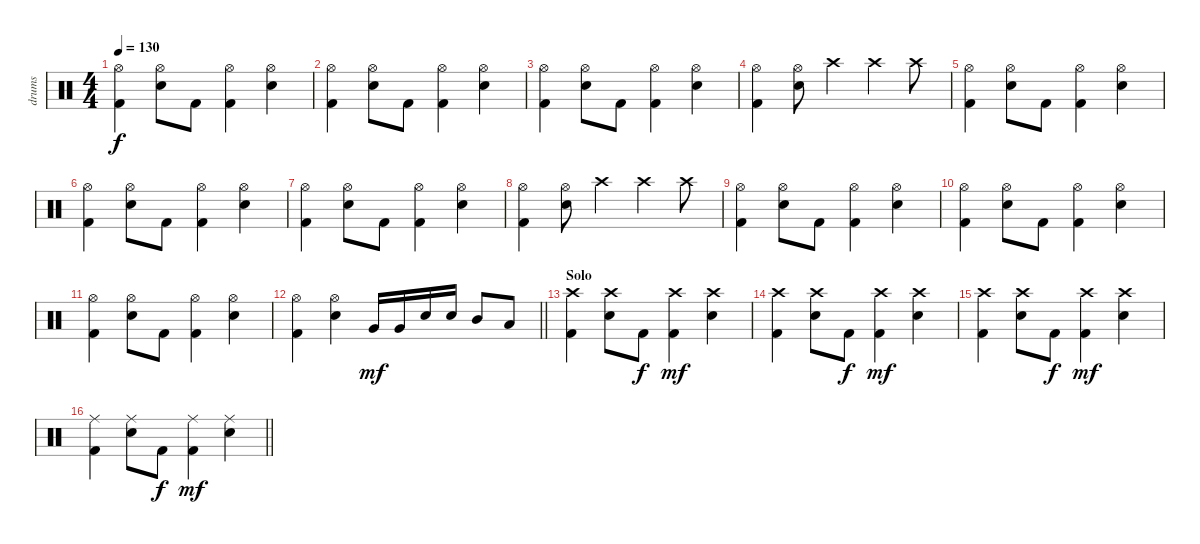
\track ("drums" "drums") {instrument percussion}
\staff {score}
\articulation defaults
\ts (4 4)
\tempo 130
\clef neutral
\ks c
("Hi-Hat (open)" "Kick (hit) 2").4{dy f} ("Hi-Hat (open)" "Snare (hit) 2").8 "Kick (hit) 2".8 ("Hi-Hat (open)" "Kick (hit) 2").4 ("Hi-Hat (open)" "Snare (hit) 2").4 |
("Hi-Hat (open)" "Kick (hit) 2").4 ("Hi-Hat (open)" "Snare (hit) 2").8 "Kick (hit) 2".8 ("Hi-Hat (open)" "Kick (hit) 2").4 ("Hi-Hat (open)" "Snare (hit) 2").4 |
("Hi-Hat (open)" "Kick (hit) 2").4 ("Hi-Hat (open)" "Snare (hit) 2").8 "Kick (hit) 2".8 ("Hi-Hat (open)" "Kick (hit) 2").4 ("Hi-Hat (open)" "Snare (hit) 2").4 |
("Hi-Hat (open)" "Kick (hit) 2").4 ("Hi-Hat (open)" "Snare (hit) 2").8 "Crash high (hit)".4 "Crash high (hit)".4 "Crash high (hit)".8 |
("Hi-Hat (open)" "Kick (hit) 2").4 ("Hi-Hat (open)" "Snare (hit) 2").8 "Kick (hit) 2".8 ("Hi-Hat (open)" "Kick (hit) 2").4 ("Hi-Hat (open)" "Snare (hit) 2").4 |
("Hi-Hat (open)" "Kick (hit) 2").4 ("Hi-Hat (open)" "Snare (hit) 2").8 "Kick (hit) 2".8 ("Hi-Hat (open)" "Kick (hit) 2").4 ("Hi-Hat (open)" "Snare (hit) 2").4 |
("Hi-Hat (open)" "Kick (hit) 2").4 ("Hi-Hat (open)" "Snare (hit) 2").8 "Kick (hit) 2".8 ("Hi-Hat (open)" "Kick (hit) 2").4 ("Hi-Hat (open)" "Snare (hit) 2").4 |
("Hi-Hat (open)" "Kick (hit) 2").4 ("Hi-Hat (open)" "Snare (hit) 2").8 "Crash high (hit)".4 "Crash high (hit)".4 "Crash high (hit)".8 |
("Hi-Hat (open)" "Kick (hit) 2").4 ("Hi-Hat (open)" "Snare (hit) 2").8 "Kick (hit) 2".8 ("Hi-Hat (open)" "Kick (hit) 2").4 ("Hi-Hat (open)" "Snare (hit) 2").4 |
("Hi-Hat (open)" "Kick (hit) 2").4 ("Hi-Hat (open)" "Snare (hit) 2").8 "Kick (hit) 2".8 ("Hi-Hat (open)" "Kick (hit) 2").4 ("Hi-Hat (open)" "Snare (hit) 2").4 |
("Hi-Hat (open)" "Kick (hit) 2").4 ("Hi-Hat (open)" "Snare (hit) 2").8 "Kick (hit) 2".8 ("Hi-Hat (open)" "Kick (hit) 2").4 ("Hi-Hat (open)" "Snare (hit) 2").4 |
\barLineRight lightlight
("Hi-Hat (open)" "Kick (hit) 2").4 ("Hi-Hat (open)" "Snare (hit) 2").4 "Very Low Tom (hit)".16{dy mf} "Very Low Tom (hit)".16 "Snare (hit) 2".16 "Snare (hit) 2".16 "Mid Tom (hit)".8 "Low Tom (hit)".8 |
\section ("" "Solo")
("Crash high (hit)" "Kick (hit) 2").4 ("Crash high (hit)" "Snare (hit) 2").8 "Kick (hit) 2".8{dy f} ("Crash high (hit)" "Kick (hit) 2").4{dy mf} ("Crash high (hit)" "Snare (hit) 2").4 |
("Crash high (hit)" "Kick (hit) 2").4 ("Crash high (hit)" "Snare (hit) 2").8 "Kick (hit) 2".8{dy f} ("Crash high (hit)" "Kick (hit) 2").4{dy mf} ("Crash high (hit)" "Snare (hit) 2").4 |
("Crash high (hit)" "Kick (hit) 2").4 ("Crash high (hit)" "Snare (hit) 2").8 "Kick (hit) 2".8{dy f} ("Crash high (hit)" "Kick (hit) 2").4{dy mf} ("Crash high (hit)" "Snare (hit) 2").4 |
\barLineRight lightlight
("Ride (middle)" "Kick (hit) 2").4 ("Ride (middle)" "Snare (hit) 2").8 "Kick (hit) 2".8{dy f} ("Ride (middle)" "Kick (hit) 2").4{dy mf} ("Ride (middle)" "Snare (hit) 2").4
